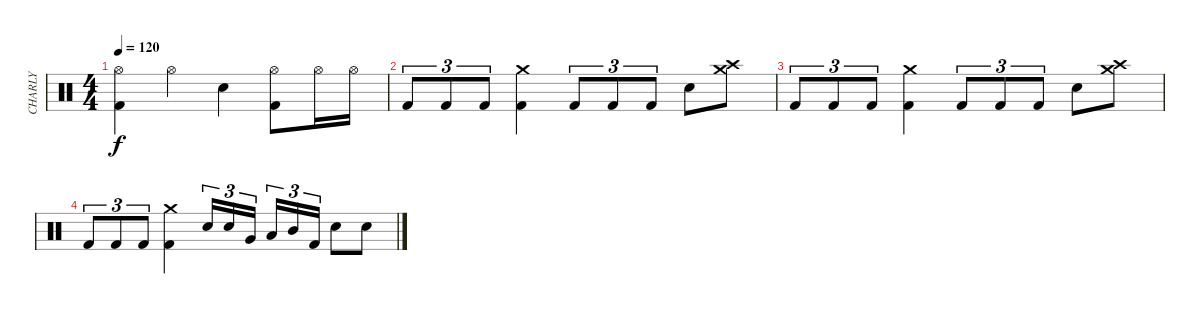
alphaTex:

\track ("CHARLY" "CHARLY") {instrument percussion}
\staff {score}
\articulation defaults
\ts (4 4)
\tempo 120
\clef neutral
\ks c
("Kick (hit) 2" "Hi-Hat (open)").4{dy f} "Hi-Hat (open)".4 "Electric Snare (hit)".4 ("Kick (hit) 2" "Hi-Hat (open)").8 "Hi-Hat (open)".16 "Hi-Hat (open)".16 |
"Kick (hit) 2".8{tu (3 2)} "Kick (hit) 2".8{tu (3 2)} "Kick (hit) 2".8{tu (3 2)} ("Kick (hit) 2" "Crash medium (hit)").4 "Kick (hit) 2".8{tu (3 2)} "Kick (hit) 2".8{tu (3 2)} "Kick (hit) 2".8{tu (3 2)} "Electric Snare (hit)".8 ("Crash high (hit)" "Crash medium (hit)").8 |
"Kick (hit) 2".8{tu (3 2)} "Kick (hit) 2".8{tu (3 2)} "Kick (hit) 2".8{tu (3 2)} ("Kick (hit) 2" "Crash medium (hit)").4 "Kick (hit) 2".8{tu (3 2)} "Kick (hit) 2".8{tu (3 2)} "Kick (hit) 2".8{tu (3 2)} "Electric Snare (hit)".8 ("Crash high (hit)" "Crash medium (hit)").8 |
"Kick (hit) 2".8{tu (3 2)} "Kick (hit) 2".8{tu (3 2)} "Kick (hit) 2".8{tu (3 2)} ("Kick (hit) 2" "Crash medium (hit)").4 "Electric Snare (hit)".16{tu (3 2)} "Electric Snare (hit)".16{tu (3 2)} "Very Low Tom (hit)".16{tu (3 2)} "Low Tom (hit)".16{tu (3 2)} "Mid Tom (hit)".16{tu (3 2)} "Kick (hit) 2".16{tu (3 2)} "Electric Snare (hit)".8 "Electric Snare (hit)".8
